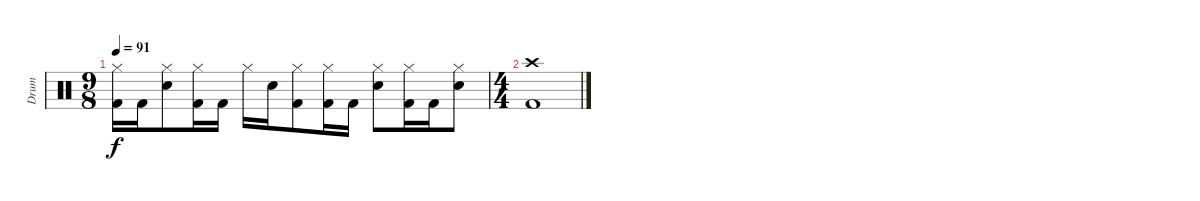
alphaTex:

\track ("Drum" "Drum") {instrument percussion}
\staff {score}
\articulation defaults
\ts (9 8)
\tempo 91
\clef neutral
\ks c
("Hi-Hat (closed)" "Kick (hit) 2").16{dy f} "Kick (hit) 2".16 ("Hi-Hat (closed)" "Snare (hit) 2").8 ("Hi-Hat (closed)" "Kick (hit) 2").16 "Kick (hit) 2".16 "Hi-Hat (closed)".16 "Snare (hit) 2".16 ("Hi-Hat (closed)" "Kick (hit) 2").8 ("Hi-Hat (closed)" "Kick (hit) 2").16 "Kick (hit) 2".16 ("Hi-Hat (closed)" "Snare (hit) 2").8 ("Hi-Hat (closed)" "Kick (hit) 2").16 "Kick (hit) 2".16 ("Hi-Hat (closed)" "Snare (hit) 2").8 |
\ts (4 4)
("Crash high (hit)" "Kick (hit) 2").1
